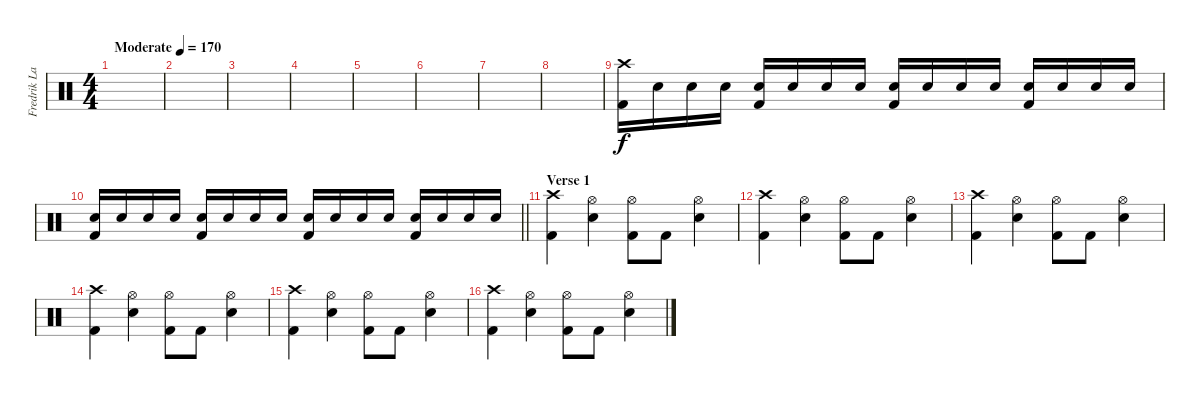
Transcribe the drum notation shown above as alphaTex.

\track ("Fredrik Larzon" "Fredrik La") {instrument percussion}
\staff {score}
\articulation defaults
\ts (4 4)
\tempo (170 "Moderate")
\clef neutral
\ks c
|
|
|
|
|
|
|
|
("Crash high (hit)" "Kick (hit) 2").16 "Electric Snare (hit)".16 "Electric Snare (hit)".16 "Electric Snare (hit)".16 ("Electric Snare (hit)" "Kick (hit) 2").16 "Electric Snare (hit)".16 "Electric Snare (hit)".16 "Electric Snare (hit)".16 ("Electric Snare (hit)" "Kick (hit) 2").16 "Electric Snare (hit)".16 "Electric Snare (hit)".16 "Electric Snare (hit)".16 ("Electric Snare (hit)" "Kick (hit) 2").16 "Electric Snare (hit)".16 "Electric Snare (hit)".16 "Electric Snare (hit)".16 |
\barLineRight lightlight
("Electric Snare (hit)" "Kick (hit) 2").16 "Electric Snare (hit)".16 "Electric Snare (hit)".16 "Electric Snare (hit)".16 ("Electric Snare (hit)" "Kick (hit) 2").16 "Electric Snare (hit)".16 "Electric Snare (hit)".16 "Electric Snare (hit)".16 ("Electric Snare (hit)" "Kick (hit) 2").16 "Electric Snare (hit)".16 "Electric Snare (hit)".16 "Electric Snare (hit)".16 ("Electric Snare (hit)" "Kick (hit) 2").16 "Electric Snare (hit)".16 "Electric Snare (hit)".16 "Electric Snare (hit)".16 |
\section ("" "Verse 1")
("Crash high (hit)" "Kick (hit) 2").4 ("Hi-Hat (open)" "Electric Snare (hit)").4 ("Hi-Hat (open)" "Kick (hit) 2").8 "Kick (hit) 2".8 ("Hi-Hat (open)" "Electric Snare (hit)").4 |
("Crash high (hit)" "Kick (hit) 2").4 ("Hi-Hat (open)" "Electric Snare (hit)").4 ("Hi-Hat (open)" "Kick (hit) 2").8 "Kick (hit) 2".8 ("Hi-Hat (open)" "Electric Snare (hit)").4 |
("Crash high (hit)" "Kick (hit) 2").4 ("Hi-Hat (open)" "Electric Snare (hit)").4 ("Hi-Hat (open)" "Kick (hit) 2").8 "Kick (hit) 2".8 ("Hi-Hat (open)" "Electric Snare (hit)").4 |
("Crash high (hit)" "Kick (hit) 2").4 ("Hi-Hat (open)" "Electric Snare (hit)").4 ("Hi-Hat (open)" "Kick (hit) 2").8 "Kick (hit) 2".8 ("Hi-Hat (open)" "Electric Snare (hit)").4 |
("Crash high (hit)" "Kick (hit) 2").4 ("Hi-Hat (open)" "Electric Snare (hit)").4 ("Hi-Hat (open)" "Kick (hit) 2").8 "Kick (hit) 2".8 ("Hi-Hat (open)" "Electric Snare (hit)").4 |
("Crash high (hit)" "Kick (hit) 2").4 ("Hi-Hat (open)" "Electric Snare (hit)").4 ("Hi-Hat (open)" "Kick (hit) 2").8 "Kick (hit) 2".8 ("Hi-Hat (open)" "Electric Snare (hit)").4
